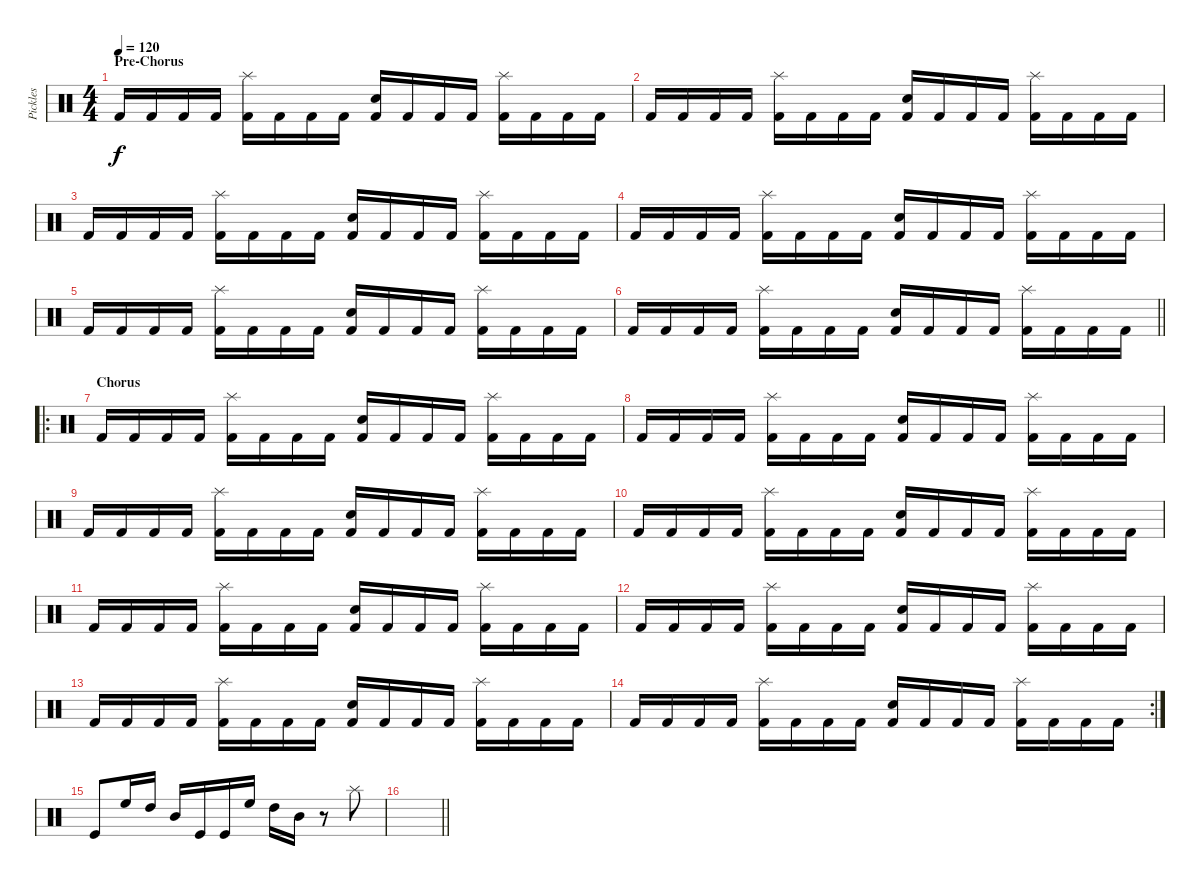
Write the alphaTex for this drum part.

\track ("Pickles" "Pickles") {instrument percussion}
\staff {score}
\articulation defaults
\ts (4 4)
\section ("" "Pre-Chorus")
\tempo 120
\clef neutral
\ks c "Kick (hit) 2".16{dy f} "Kick (hit) 2".16 "Kick (hit) 2".16 "Kick (hit) 2".16
("Splash (hit)" "Kick (hit) 2").16 "Kick (hit) 2".16 "Kick (hit) 2".16 "Kick (hit) 2".16 ("Electric Snare (hit)" "Kick (hit) 2").16 "Kick (hit) 2".16 "Kick (hit) 2".16 "Kick (hit) 2".16 ("Splash (hit)" "Kick (hit) 2").16 "Kick (hit) 2".16 "Kick (hit) 2".16 "Kick (hit) 2".16 |
"Kick (hit) 2".16 "Kick (hit) 2".16 "Kick (hit) 2".16 "Kick (hit) 2".16 ("Splash (hit)" "Kick (hit) 2").16 "Kick (hit) 2".16 "Kick (hit) 2".16 "Kick (hit) 2".16 ("Electric Snare (hit)" "Kick (hit) 2").16 "Kick (hit) 2".16 "Kick (hit) 2".16 "Kick (hit) 2".16 ("Splash (hit)" "Kick (hit) 2").16 "Kick (hit) 2".16 "Kick (hit) 2".16 "Kick (hit) 2".16 |
"Kick (hit) 2".16 "Kick (hit) 2".16 "Kick (hit) 2".16 "Kick (hit) 2".16 ("Splash (hit)" "Kick (hit) 2").16 "Kick (hit) 2".16 "Kick (hit) 2".16 "Kick (hit) 2".16 ("Electric Snare (hit)" "Kick (hit) 2").16 "Kick (hit) 2".16 "Kick (hit) 2".16 "Kick (hit) 2".16 ("Splash (hit)" "Kick (hit) 2").16 "Kick (hit) 2".16 "Kick (hit) 2".16 "Kick (hit) 2".16 |
"Kick (hit) 2".16 "Kick (hit) 2".16 "Kick (hit) 2".16 "Kick (hit) 2".16 ("Splash (hit)" "Kick (hit) 2").16 "Kick (hit) 2".16 "Kick (hit) 2".16 "Kick (hit) 2".16 ("Electric Snare (hit)" "Kick (hit) 2").16 "Kick (hit) 2".16 "Kick (hit) 2".16 "Kick (hit) 2".16 ("Splash (hit)" "Kick (hit) 2").16 "Kick (hit) 2".16 "Kick (hit) 2".16 "Kick (hit) 2".16 |
"Kick (hit) 2".16 "Kick (hit) 2".16 "Kick (hit) 2".16 "Kick (hit) 2".16 ("Splash (hit)" "Kick (hit) 2").16 "Kick (hit) 2".16 "Kick (hit) 2".16 "Kick (hit) 2".16 ("Electric Snare (hit)" "Kick (hit) 2").16 "Kick (hit) 2".16 "Kick (hit) 2".16 "Kick (hit) 2".16 ("Splash (hit)" "Kick (hit) 2").16 "Kick (hit) 2".16 "Kick (hit) 2".16 "Kick (hit) 2".16 |
\barLineRight lightlight "Kick (hit) 2".16 "Kick (hit) 2".16 "Kick (hit) 2".16 "Kick (hit) 2".16
("Splash (hit)" "Kick (hit) 2").16 "Kick (hit) 2".16 "Kick (hit) 2".16 "Kick (hit) 2".16 ("Electric Snare (hit)" "Kick (hit) 2").16 "Kick (hit) 2".16 "Kick (hit) 2".16 "Kick (hit) 2".16 ("Splash (hit)" "Kick (hit) 2").16 "Kick (hit) 2".16 "Kick (hit) 2".16 "Kick (hit) 2".16 |
\ro
\section ("" "Chorus")
"Kick (hit) 2".16 "Kick (hit) 2".16 "Kick (hit) 2".16 "Kick (hit) 2".16 ("Splash (hit)" "Kick (hit) 2").16 "Kick (hit) 2".16 "Kick (hit) 2".16 "Kick (hit) 2".16 ("Electric Snare (hit)" "Kick (hit) 2").16 "Kick (hit) 2".16 "Kick (hit) 2".16 "Kick (hit) 2".16 ("Splash (hit)" "Kick (hit) 2").16 "Kick (hit) 2".16 "Kick (hit) 2".16 "Kick (hit) 2".16 |
"Kick (hit) 2".16 "Kick (hit) 2".16 "Kick (hit) 2".16 "Kick (hit) 2".16 ("Splash (hit)" "Kick (hit) 2").16 "Kick (hit) 2".16 "Kick (hit) 2".16 "Kick (hit) 2".16 ("Electric Snare (hit)" "Kick (hit) 2").16 "Kick (hit) 2".16 "Kick (hit) 2".16 "Kick (hit) 2".16 ("Splash (hit)" "Kick (hit) 2").16 "Kick (hit) 2".16 "Kick (hit) 2".16 "Kick (hit) 2".16 |
"Kick (hit) 2".16 "Kick (hit) 2".16 "Kick (hit) 2".16 "Kick (hit) 2".16 ("Splash (hit)" "Kick (hit) 2").16 "Kick (hit) 2".16 "Kick (hit) 2".16 "Kick (hit) 2".16 ("Electric Snare (hit)" "Kick (hit) 2").16 "Kick (hit) 2".16 "Kick (hit) 2".16 "Kick (hit) 2".16 ("Splash (hit)" "Kick (hit) 2").16 "Kick (hit) 2".16 "Kick (hit) 2".16 "Kick (hit) 2".16 |
"Kick (hit) 2".16 "Kick (hit) 2".16 "Kick (hit) 2".16 "Kick (hit) 2".16 ("Splash (hit)" "Kick (hit) 2").16 "Kick (hit) 2".16 "Kick (hit) 2".16 "Kick (hit) 2".16 ("Electric Snare (hit)" "Kick (hit) 2").16 "Kick (hit) 2".16 "Kick (hit) 2".16 "Kick (hit) 2".16 ("Splash (hit)" "Kick (hit) 2").16 "Kick (hit) 2".16 "Kick (hit) 2".16 "Kick (hit) 2".16 |
"Kick (hit) 2".16 "Kick (hit) 2".16 "Kick (hit) 2".16 "Kick (hit) 2".16 ("Splash (hit)" "Kick (hit) 2").16 "Kick (hit) 2".16 "Kick (hit) 2".16 "Kick (hit) 2".16 ("Electric Snare (hit)" "Kick (hit) 2").16 "Kick (hit) 2".16 "Kick (hit) 2".16 "Kick (hit) 2".16 ("Splash (hit)" "Kick (hit) 2").16 "Kick (hit) 2".16 "Kick (hit) 2".16 "Kick (hit) 2".16 |
"Kick (hit) 2".16 "Kick (hit) 2".16 "Kick (hit) 2".16 "Kick (hit) 2".16 ("Splash (hit)" "Kick (hit) 2").16 "Kick (hit) 2".16 "Kick (hit) 2".16 "Kick (hit) 2".16 ("Electric Snare (hit)" "Kick (hit) 2").16 "Kick (hit) 2".16 "Kick (hit) 2".16 "Kick (hit) 2".16 ("Splash (hit)" "Kick (hit) 2").16 "Kick (hit) 2".16 "Kick (hit) 2".16 "Kick (hit) 2".16 |
"Kick (hit) 2".16 "Kick (hit) 2".16 "Kick (hit) 2".16 "Kick (hit) 2".16 ("Splash (hit)" "Kick (hit) 2").16 "Kick (hit) 2".16 "Kick (hit) 2".16 "Kick (hit) 2".16 ("Electric Snare (hit)" "Kick (hit) 2").16 "Kick (hit) 2".16 "Kick (hit) 2".16 "Kick (hit) 2".16 ("Splash (hit)" "Kick (hit) 2").16 "Kick (hit) 2".16 "Kick (hit) 2".16 "Kick (hit) 2".16 |
\rc 2 "Kick (hit) 2".16 "Kick (hit) 2".16 "Kick (hit) 2".16 "Kick (hit) 2".16
("Splash (hit)" "Kick (hit) 2").16 "Kick (hit) 2".16 "Kick (hit) 2".16 "Kick (hit) 2".16 ("Electric Snare (hit)" "Kick (hit) 2").16 "Kick (hit) 2".16 "Kick (hit) 2".16 "Kick (hit) 2".16 ("Splash (hit)" "Kick (hit) 2").16 "Kick (hit) 2".16 "Kick (hit) 2".16 "Kick (hit) 2".16 |
"Kick (hit)".8 "High Floor Tom (hit)".16 "High Tom (hit)".16 "Mid Tom (hit)".16 "Kick (hit)".16 "Kick (hit)".16 "High Floor Tom (hit)".16 "High Tom (hit)".16 "Mid Tom (hit)".16 r.8 "Splash (hit)".8 |
\barLineRight lightlight
